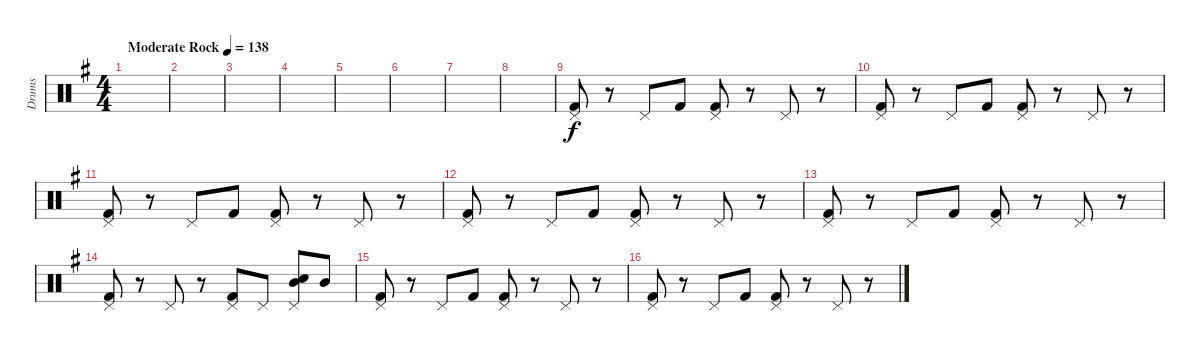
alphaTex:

\track ("Drums" "Drums") {instrument percussion}
\staff {score}
\articulation defaults
\ts (4 4)
\tempo (138 "Moderate Rock")
\clef neutral
\ks g
|
|
|
|
|
|
|
|
("Pedal Hi-Hat (hit)" "Kick (hit) 2").8 r.8 "Pedal Hi-Hat (hit)".8 "Kick (hit) 2".8 ("Pedal Hi-Hat (hit)" "Kick (hit) 2").8 r.8 "Pedal Hi-Hat (hit)".8 r.8 |
("Pedal Hi-Hat (hit)" "Kick (hit) 2").8 r.8 "Pedal Hi-Hat (hit)".8 "Kick (hit) 2".8 ("Pedal Hi-Hat (hit)" "Kick (hit) 2").8 r.8 "Pedal Hi-Hat (hit)".8 r.8 |
("Pedal Hi-Hat (hit)" "Kick (hit) 2").8 r.8 "Pedal Hi-Hat (hit)".8 "Kick (hit) 2".8 ("Pedal Hi-Hat (hit)" "Kick (hit) 2").8 r.8 "Pedal Hi-Hat (hit)".8 r.8 |
("Pedal Hi-Hat (hit)" "Kick (hit) 2").8 r.8 "Pedal Hi-Hat (hit)".8 "Kick (hit) 2".8 ("Pedal Hi-Hat (hit)" "Kick (hit) 2").8 r.8 "Pedal Hi-Hat (hit)".8 r.8 |
("Pedal Hi-Hat (hit)" "Kick (hit) 2").8 r.8 "Pedal Hi-Hat (hit)".8 "Kick (hit) 2".8 ("Pedal Hi-Hat (hit)" "Kick (hit) 2").8 r.8 "Pedal Hi-Hat (hit)".8 r.8 |
("Pedal Hi-Hat (hit)" "Kick (hit) 2").8 r.8 "Pedal Hi-Hat (hit)".8 r.8 ("Pedal Hi-Hat (hit)" "Kick (hit) 2").8 "Pedal Hi-Hat (hit)".8 ("Pedal Hi-Hat (hit)" "Electric Snare (hit)" "Mid Tom (hit)").8 "Mid Tom (hit)".8 |
("Pedal Hi-Hat (hit)" "Kick (hit) 2").8 r.8 "Pedal Hi-Hat (hit)".8 "Kick (hit) 2".8 ("Pedal Hi-Hat (hit)" "Kick (hit) 2").8 r.8 "Pedal Hi-Hat (hit)".8 r.8 |
("Pedal Hi-Hat (hit)" "Kick (hit) 2").8 r.8 "Pedal Hi-Hat (hit)".8 "Kick (hit) 2".8 ("Pedal Hi-Hat (hit)" "Kick (hit) 2").8 r.8 "Pedal Hi-Hat (hit)".8 r.8
